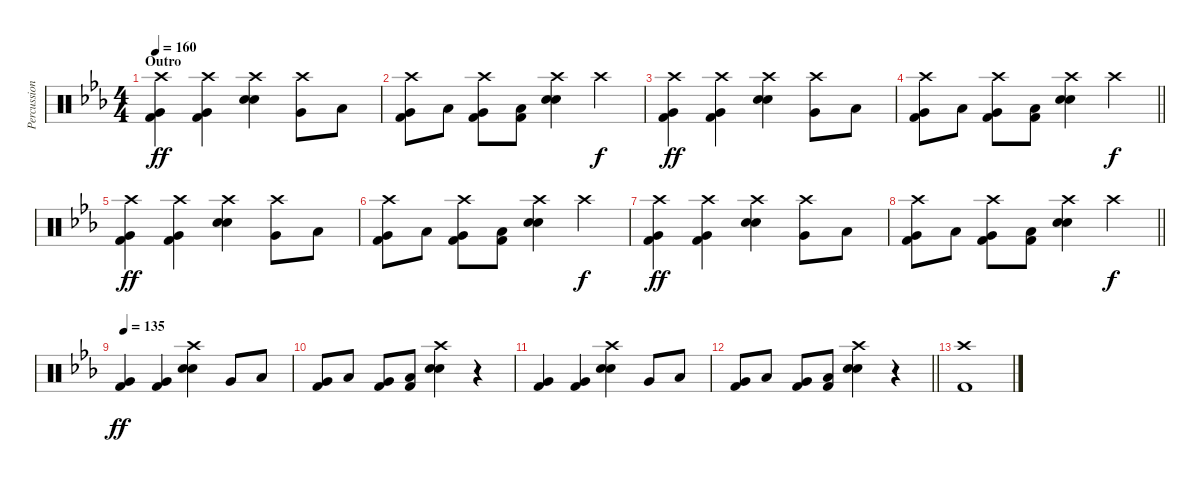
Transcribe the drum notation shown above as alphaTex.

\track ("Percussion" "Percussion") {instrument percussion}
\staff {score}
\articulation defaults
\ts (4 4)
\section ("" "Outro")
\tempo 160
\clef neutral
\ks eb
("Crash high (hit)" "Very Low Tom (hit)" "Kick (hit) 2").4{dy ff} ("Crash high (hit)" "Very Low Tom (hit)" "Kick (hit) 2").4 ("Crash high (hit)" "Snare (hit) 2" "Electric Snare (hit)").4 ("Crash high (hit)" "Very Low Tom (hit)").8 "Low Floor Tom (hit)".8 |
("Crash high (hit)" "Very Low Tom (hit)" "Kick (hit) 2").8 "Low Floor Tom (hit)".8 ("Crash high (hit)" "Very Low Tom (hit)" "Kick (hit) 2").8 ("Low Floor Tom (hit)" "Kick (hit) 2").8 ("Crash high (hit)" "Snare (hit) 2" "Electric Snare (hit)").4 "Crash high (hit)".4{dy f} |
("Crash high (hit)" "Very Low Tom (hit)" "Kick (hit) 2").4{dy ff} ("Crash high (hit)" "Very Low Tom (hit)" "Kick (hit) 2").4 ("Crash high (hit)" "Snare (hit) 2" "Electric Snare (hit)").4 ("Crash high (hit)" "Very Low Tom (hit)").8 "Low Floor Tom (hit)".8 |
\barLineRight lightlight
("Crash high (hit)" "Very Low Tom (hit)" "Kick (hit) 2").8 "Low Floor Tom (hit)".8 ("Crash high (hit)" "Very Low Tom (hit)" "Kick (hit) 2").8 ("Low Floor Tom (hit)" "Kick (hit) 2").8 ("Crash high (hit)" "Snare (hit) 2" "Electric Snare (hit)").4 "Crash high (hit)".4{dy f} |
\section ("" "")
("Crash high (hit)" "Very Low Tom (hit)" "Kick (hit) 2").4{dy ff} ("Crash high (hit)" "Very Low Tom (hit)" "Kick (hit) 2").4 ("Crash high (hit)" "Snare (hit) 2" "Electric Snare (hit)").4 ("Crash high (hit)" "Very Low Tom (hit)").8 "Low Floor Tom (hit)".8 |
("Crash high (hit)" "Very Low Tom (hit)" "Kick (hit) 2").8 "Low Floor Tom (hit)".8 ("Crash high (hit)" "Very Low Tom (hit)" "Kick (hit) 2").8 ("Low Floor Tom (hit)" "Kick (hit) 2").8 ("Crash high (hit)" "Snare (hit) 2" "Electric Snare (hit)").4 "Crash high (hit)".4{dy f} |
("Crash high (hit)" "Very Low Tom (hit)" "Kick (hit) 2").4{dy ff} ("Crash high (hit)" "Very Low Tom (hit)" "Kick (hit) 2").4 ("Crash high (hit)" "Snare (hit) 2" "Electric Snare (hit)").4 ("Crash high (hit)" "Very Low Tom (hit)").8 "Low Floor Tom (hit)".8 |
\barLineRight lightlight
("Crash high (hit)" "Very Low Tom (hit)" "Kick (hit) 2").8 "Low Floor Tom (hit)".8 ("Crash high (hit)" "Very Low Tom (hit)" "Kick (hit) 2").8 ("Low Floor Tom (hit)" "Kick (hit) 2").8 ("Crash high (hit)" "Snare (hit) 2" "Electric Snare (hit)").4 "Crash high (hit)".4{dy f} |
\section ("" "")
\tempo 135
("Very Low Tom (hit)" "Kick (hit) 2").4{dy ff} ("Very Low Tom (hit)" "Kick (hit) 2").4 ("Crash high (hit)" "Snare (hit) 2" "Electric Snare (hit)").4 "Very Low Tom (hit)".8 "Low Floor Tom (hit)".8 |
("Very Low Tom (hit)" "Kick (hit) 2").8 "Low Floor Tom (hit)".8 ("Very Low Tom (hit)" "Kick (hit) 2").8 ("Low Floor Tom (hit)" "Kick (hit) 2").8 ("Crash high (hit)" "Snare (hit) 2" "Electric Snare (hit)").4 r.4 |
("Very Low Tom (hit)" "Kick (hit) 2").4 ("Very Low Tom (hit)" "Kick (hit) 2").4 ("Crash high (hit)" "Snare (hit) 2" "Electric Snare (hit)").4 "Very Low Tom (hit)".8 "Low Floor Tom (hit)".8 |
\barLineRight lightlight
("Very Low Tom (hit)" "Kick (hit) 2").8 "Low Floor Tom (hit)".8 ("Very Low Tom (hit)" "Kick (hit) 2").8 ("Low Floor Tom (hit)" "Kick (hit) 2").8 ("Crash high (hit)" "Snare (hit) 2" "Electric Snare (hit)").4 r.4 |
\section ("" "")
("Crash high (hit)" "Kick (hit) 2").1
